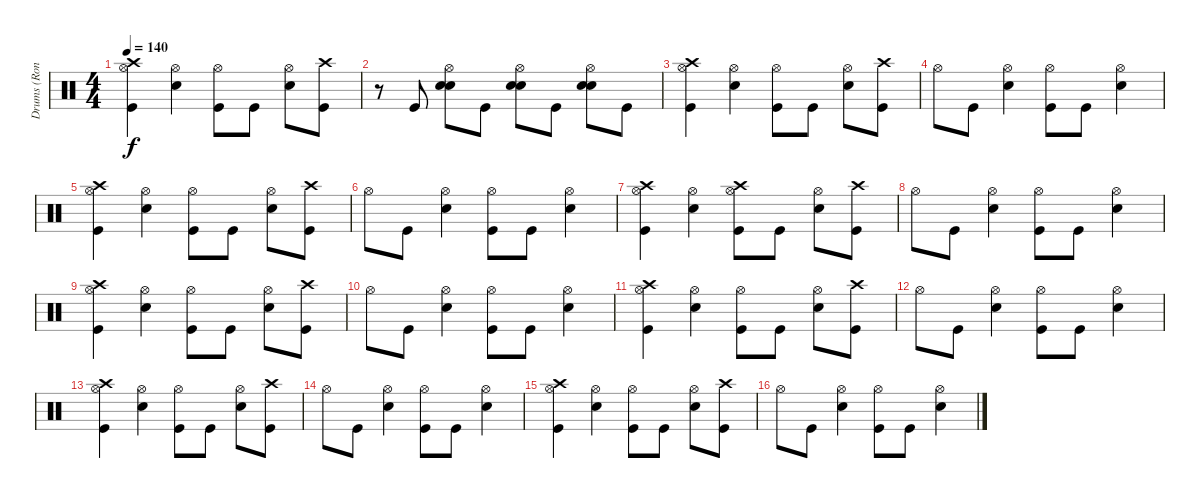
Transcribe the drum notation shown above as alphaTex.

\track ("Drums (Ron Welty)" "Drums (Ron") {instrument percussion}
\staff {score}
\articulation defaults
\ts (4 4)
\tempo 140
\clef neutral
\ks c
("Kick (hit)" "Crash high (hit)" "Hi-Hat (open)").4{dy f} ("Snare (hit) 2" "Hi-Hat (open)").4 ("Kick (hit)" "Hi-Hat (open)").8 "Kick (hit)".8 ("Snare (hit) 2" "Hi-Hat (open)").8 ("Kick (hit)" "Crash high (hit)").8 |
r.8 "Kick (hit)".8 ("Snare (hit) 2" "Hi-Hat (open)" "Snare (hit) 2").8 "Kick (hit)".8 ("Snare (hit) 2" "Hi-Hat (open)" "Snare (hit) 2").8 "Kick (hit)".8 ("Snare (hit) 2" "Hi-Hat (open)" "Snare (hit) 2").8 "Kick (hit)".8 |
("Kick (hit)" "Crash high (hit)" "Hi-Hat (open)").4 ("Snare (hit) 2" "Hi-Hat (open)").4 ("Kick (hit)" "Hi-Hat (open)").8 "Kick (hit)".8 ("Snare (hit) 2" "Hi-Hat (open)").8 ("Kick (hit)" "Crash high (hit)").8 |
"Hi-Hat (open)".8 "Kick (hit)".8 ("Snare (hit) 2" "Hi-Hat (open)").4 ("Kick (hit)" "Hi-Hat (open)").8 "Kick (hit)".8 ("Snare (hit) 2" "Hi-Hat (open)").4 |
("Kick (hit)" "Crash high (hit)" "Hi-Hat (open)").4 ("Snare (hit) 2" "Hi-Hat (open)").4 ("Kick (hit)" "Hi-Hat (open)").8 "Kick (hit)".8 ("Snare (hit) 2" "Hi-Hat (open)").8 ("Kick (hit)" "Crash high (hit)").8 |
"Hi-Hat (open)".8 "Kick (hit)".8 ("Snare (hit) 2" "Hi-Hat (open)").4 ("Kick (hit)" "Hi-Hat (open)").8 "Kick (hit)".8 ("Snare (hit) 2" "Hi-Hat (open)").4 |
("Kick (hit)" "Crash high (hit)" "Hi-Hat (open)").4 ("Snare (hit) 2" "Hi-Hat (open)").4 ("Kick (hit)" "Crash high (hit)" "Hi-Hat (open)").8 "Kick (hit)".8 ("Snare (hit) 2" "Hi-Hat (open)").8 ("Kick (hit)" "Crash high (hit)").8 |
"Hi-Hat (open)".8 "Kick (hit)".8 ("Snare (hit) 2" "Hi-Hat (open)").4 ("Kick (hit)" "Hi-Hat (open)").8 "Kick (hit)".8 ("Snare (hit) 2" "Hi-Hat (open)").4 |
("Kick (hit)" "Crash high (hit)" "Hi-Hat (open)").4 ("Snare (hit) 2" "Hi-Hat (open)").4 ("Kick (hit)" "Hi-Hat (open)").8 "Kick (hit)".8 ("Snare (hit) 2" "Hi-Hat (open)").8 ("Kick (hit)" "Crash high (hit)").8 |
"Hi-Hat (open)".8 "Kick (hit)".8 ("Snare (hit) 2" "Hi-Hat (open)").4 ("Kick (hit)" "Hi-Hat (open)").8 "Kick (hit)".8 ("Snare (hit) 2" "Hi-Hat (open)").4 |
("Kick (hit)" "Crash high (hit)" "Hi-Hat (open)").4 ("Snare (hit) 2" "Hi-Hat (open)").4 ("Kick (hit)" "Hi-Hat (open)").8 "Kick (hit)".8 ("Snare (hit) 2" "Hi-Hat (open)").8 ("Kick (hit)" "Crash high (hit)").8 |
"Hi-Hat (open)".8 "Kick (hit)".8 ("Snare (hit) 2" "Hi-Hat (open)").4 ("Kick (hit)" "Hi-Hat (open)").8 "Kick (hit)".8 ("Snare (hit) 2" "Hi-Hat (open)").4 |
("Kick (hit)" "Crash high (hit)" "Hi-Hat (open)").4 ("Snare (hit) 2" "Hi-Hat (open)").4 ("Kick (hit)" "Hi-Hat (open)").8 "Kick (hit)".8 ("Snare (hit) 2" "Hi-Hat (open)").8 ("Kick (hit)" "Crash high (hit)").8 |
"Hi-Hat (open)".8 "Kick (hit)".8 ("Snare (hit) 2" "Hi-Hat (open)").4 ("Kick (hit)" "Hi-Hat (open)").8 "Kick (hit)".8 ("Snare (hit) 2" "Hi-Hat (open)").4 |
("Kick (hit)" "Crash high (hit)" "Hi-Hat (open)").4 ("Snare (hit) 2" "Hi-Hat (open)").4 ("Kick (hit)" "Hi-Hat (open)").8 "Kick (hit)".8 ("Snare (hit) 2" "Hi-Hat (open)").8 ("Kick (hit)" "Crash high (hit)").8 |
"Hi-Hat (open)".8 "Kick (hit)".8 ("Snare (hit) 2" "Hi-Hat (open)").4 ("Kick (hit)" "Hi-Hat (open)").8 "Kick (hit)".8 ("Snare (hit) 2" "Hi-Hat (open)").4
